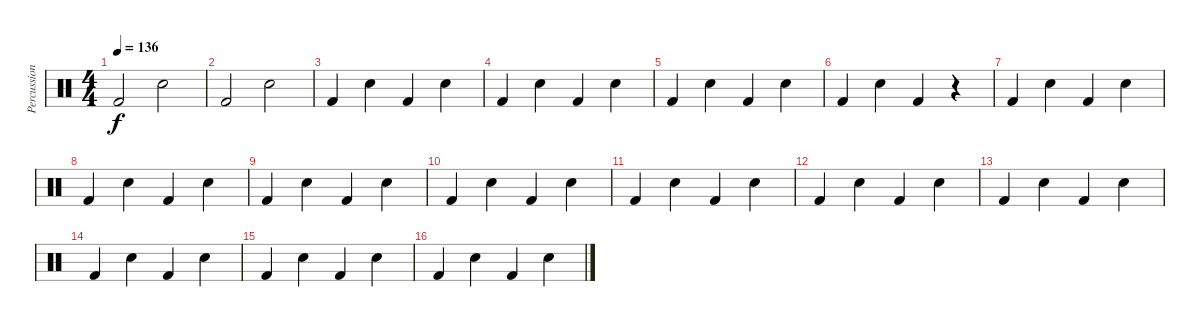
\track ("Percussion" "Percussion") {instrument percussion}
\staff {score}
\articulation defaults
\ts (4 4)
\tempo 136
\clef neutral
\ks c "Kick (hit) 2".2{dy f} "Snare (hit) 2".2
|
"Kick (hit) 2".2 "Snare (hit) 2".2 |
"Kick (hit) 2".4 "Snare (hit) 2".4 "Kick (hit) 2".4 "Snare (hit) 2".4 |
"Kick (hit) 2".4 "Snare (hit) 2".4 "Kick (hit) 2".4 "Snare (hit) 2".4 |
"Kick (hit) 2".4 "Snare (hit) 2".4 "Kick (hit) 2".4 "Snare (hit) 2".4 |
"Kick (hit) 2".4 "Snare (hit) 2".4 "Kick (hit) 2".4 r.4 |
"Kick (hit) 2".4 "Snare (hit) 2".4 "Kick (hit) 2".4 "Snare (hit) 2".4 |
"Kick (hit) 2".4 "Snare (hit) 2".4 "Kick (hit) 2".4 "Snare (hit) 2".4 |
"Kick (hit) 2".4 "Snare (hit) 2".4 "Kick (hit) 2".4 "Snare (hit) 2".4 |
"Kick (hit) 2".4 "Snare (hit) 2".4 "Kick (hit) 2".4 "Snare (hit) 2".4 |
"Kick (hit) 2".4 "Snare (hit) 2".4 "Kick (hit) 2".4 "Snare (hit) 2".4 |
"Kick (hit) 2".4 "Snare (hit) 2".4 "Kick (hit) 2".4 "Snare (hit) 2".4 |
"Kick (hit) 2".4 "Snare (hit) 2".4 "Kick (hit) 2".4 "Snare (hit) 2".4 |
"Kick (hit) 2".4 "Snare (hit) 2".4 "Kick (hit) 2".4 "Snare (hit) 2".4 |
"Kick (hit) 2".4 "Snare (hit) 2".4 "Kick (hit) 2".4 "Snare (hit) 2".4 |
"Kick (hit) 2".4 "Snare (hit) 2".4 "Kick (hit) 2".4 "Snare (hit) 2".4
